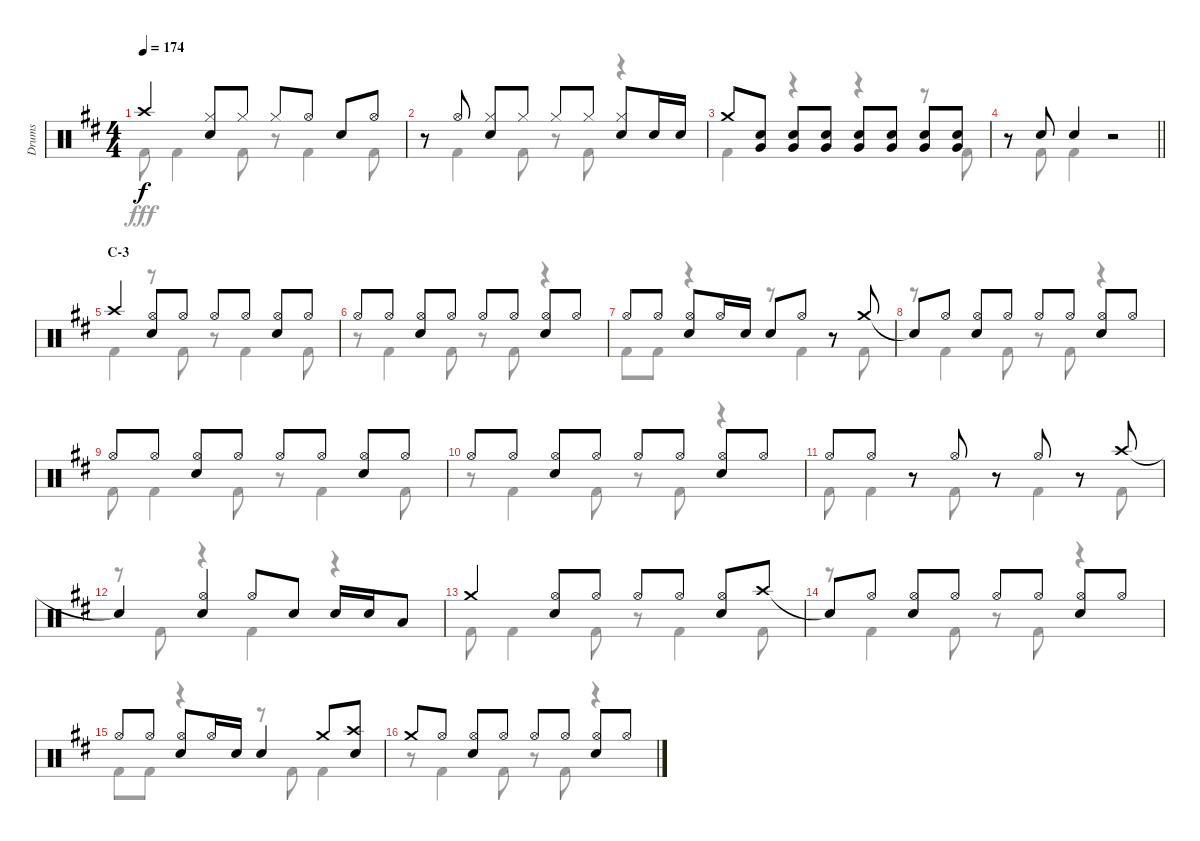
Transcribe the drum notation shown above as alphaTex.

\track ("Drums" "Drums") {instrument percussion}
\staff {score}
\articulation defaults
\voice
\ts (4 4)
\tempo 174
\clef neutral
\ks bminor "Crash high (hit)".4{dy f}
("Hi-Hat (closed)" "Snare (hit) 2").8 "Hi-Hat (closed)".8 "Hi-Hat (closed)".8 "Hi-Hat (open)".8 "Snare (hit) 2".8 "Hi-Hat (open)".8 |
r.8 "Hi-Hat (open)".8 ("Hi-Hat (closed)" "Snare (hit) 2").8 "Hi-Hat (closed)".8 "Hi-Hat (closed)".8 "Hi-Hat (closed)".8 ("Hi-Hat (closed)" "Snare (hit) 2").8 "Snare (hit) 2".16 "Snare (hit) 2".16 |
"Crash medium (hit)".8 ("Snare (hit) 2" "Very Low Tom (hit)").8 ("Snare (hit) 2" "Very Low Tom (hit)").8 ("Snare (hit) 2" "Very Low Tom (hit)").8 ("Snare (hit) 2" "Very Low Tom (hit)").8 ("Snare (hit) 2" "Very Low Tom (hit)").8 ("Snare (hit) 2" "Very Low Tom (hit)").8 ("Snare (hit) 2" "Very Low Tom (hit)").8 |
\barLineRight lightlight
r.8 "Snare (hit) 2".8 "Snare (hit) 2".4 r.2 |
\section ("" "C-3")
"Crash high (hit)".4 ("Hi-Hat (open)" "Snare (hit) 2").8 "Hi-Hat (open)".8 "Hi-Hat (open)".8 "Hi-Hat (open)".8 ("Hi-Hat (open)" "Snare (hit) 2").8 "Hi-Hat (open)".8 |
"Hi-Hat (open)".8 "Hi-Hat (open)".8 ("Hi-Hat (open)" "Snare (hit) 2").8 "Hi-Hat (open)".8 "Hi-Hat (open)".8 "Hi-Hat (open)".8 ("Hi-Hat (open)" "Snare (hit) 2").8 "Hi-Hat (open)".8 |
"Hi-Hat (open)".8 "Hi-Hat (open)".8 ("Hi-Hat (open)" "Snare (hit) 2").8 "Hi-Hat (open)".16 "Snare (hit) 2".16 "Snare (hit) 2".8 "Hi-Hat (open)".8 r.8 "Crash medium (hit)".8 |
"Snare (hit)"{t}.8 "Hi-Hat (open)".8 ("Hi-Hat (open)" "Snare (hit) 2").8 "Hi-Hat (open)".8 "Hi-Hat (open)".8 "Hi-Hat (open)".8 ("Hi-Hat (open)" "Snare (hit) 2").8 "Hi-Hat (open)".8 |
"Hi-Hat (open)".8 "Hi-Hat (open)".8 ("Hi-Hat (open)" "Snare (hit) 2").8 "Hi-Hat (open)".8 "Hi-Hat (open)".8 "Hi-Hat (open)".8 ("Hi-Hat (open)" "Snare (hit) 2").8 "Hi-Hat (open)".8 |
"Hi-Hat (open)".8 "Hi-Hat (open)".8 ("Hi-Hat (open)" "Snare (hit) 2").8 "Hi-Hat (open)".8 "Hi-Hat (open)".8 "Hi-Hat (open)".8 ("Hi-Hat (open)" "Snare (hit) 2").8 "Hi-Hat (open)".8 |
"Hi-Hat (open)".8 "Hi-Hat (open)".8 r.8 "Hi-Hat (open)".8 r.8 "Hi-Hat (open)".8 r.8 "Crash high (hit)".8 |
"Snare (hit)"{t}.4 ("Hi-Hat (open)" "Snare (hit) 2").4 "Hi-Hat (open)".8 "Snare (hit) 2".8 "Snare (hit) 2".16 "Snare (hit) 2".16 "Low Tom (hit)".8 |
"Crash medium (hit)".4 ("Hi-Hat (open)" "Snare (hit) 2").8 "Hi-Hat (open)".8 "Hi-Hat (open)".8 "Hi-Hat (open)".8 ("Hi-Hat (open)" "Snare (hit) 2").8 "Crash high (hit)".8 |
"Snare (hit)"{t}.8 "Hi-Hat (open)".8 ("Hi-Hat (open)" "Snare (hit) 2").8 "Hi-Hat (open)".8 "Hi-Hat (open)".8 "Hi-Hat (open)".8 ("Hi-Hat (open)" "Snare (hit) 2").8 "Hi-Hat (open)".8 |
"Hi-Hat (open)".8 "Hi-Hat (open)".8 ("Hi-Hat (open)" "Snare (hit) 2").8 "Hi-Hat (open)".16 "Snare (hit) 2".16 "Snare (hit) 2".4 "Crash medium (hit)".8 ("Crash high (hit)" "Snare (hit) 2").8 |
"Crash medium (hit)".8 "Hi-Hat (open)".8 ("Hi-Hat (open)" "Snare (hit) 2").8 "Hi-Hat (open)".8 "Hi-Hat (open)".8 "Hi-Hat (open)".8 ("Hi-Hat (open)" "Snare (hit) 2").8 "Hi-Hat (open)".8
\voice
\clef neutral
\ottava regular
\simile none
\ks bminor "Kick (hit) 2".8{dy fff} "Kick (hit) 2".4 "Kick (hit) 2".8
r.8 "Kick (hit) 2".4 "Kick (hit) 2".8 |
r.8 "Kick (hit) 2".4 "Kick (hit) 2".8 r.8 "Kick (hit) 2".8 r.4 |
"Kick (hit) 2".4 r.4 r.4 r.8 "Kick (hit) 2".8 |
\barLineRight lightlight
r.8 "Kick (hit) 2".8 "Kick (hit) 2".4 r.2 |
"Kick (hit) 2".4 r.8 "Kick (hit) 2".8 r.8 "Kick (hit) 2".4 "Kick (hit) 2".8 |
r.8 "Kick (hit) 2".4 "Kick (hit) 2".8 r.8 "Kick (hit) 2".8 r.4 |
"Kick (hit) 2".8 "Kick (hit) 2".8 r.4 r.8 "Kick (hit) 2".4 "Kick (hit) 2".8 |
r.8 "Kick (hit) 2".4 "Kick (hit) 2".8 r.8 "Kick (hit) 2".8 r.4 |
"Kick (hit) 2".8 "Kick (hit) 2".4 "Kick (hit) 2".8 r.8 "Kick (hit) 2".4 "Kick (hit) 2".8 |
r.8 "Kick (hit) 2".4 "Kick (hit) 2".8 r.8 "Kick (hit) 2".8 r.4 |
"Kick (hit) 2".8 "Kick (hit) 2".4 "Kick (hit) 2".8 r.8 "Kick (hit) 2".4 "Kick (hit) 2".8 |
r.8 "Kick (hit) 2".8 r.4 "Kick (hit) 2".4 r.4 |
"Kick (hit) 2".8 "Kick (hit) 2".4 "Kick (hit) 2".8 r.8 "Kick (hit) 2".4 "Kick (hit) 2".8 |
r.8 "Kick (hit) 2".4 "Kick (hit) 2".8 r.8 "Kick (hit) 2".8 r.4 |
"Kick (hit) 2".8 "Kick (hit) 2".8 r.4 r.8 "Kick (hit) 2".8 "Kick (hit) 2".4 |
r.8 "Kick (hit) 2".4 "Kick (hit) 2".8 r.8 "Kick (hit) 2".8 r.4
